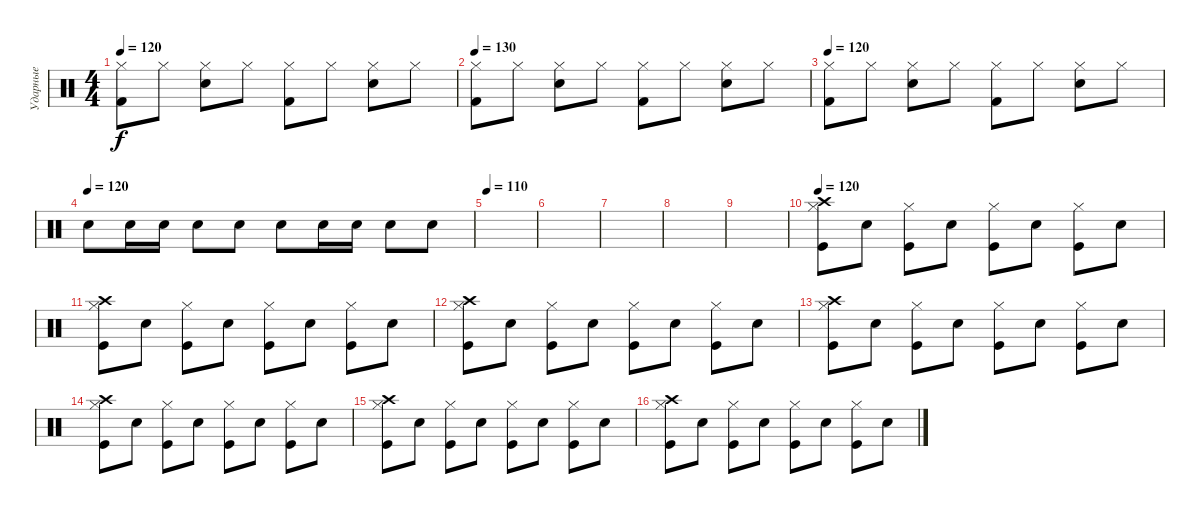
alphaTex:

\track ("Ударные" "Ударные") {instrument percussion}
\staff {score}
\articulation defaults
\ts (4 4)
\tempo 130
\tempo 120
\clef neutral
\ks c
("Hi-Hat (closed)" "Kick (hit) 2").8{dy f} "Hi-Hat (closed)".8 ("Hi-Hat (closed)" "Electric Snare (hit)").8 "Hi-Hat (closed)".8 ("Hi-Hat (closed)" "Kick (hit) 2").8 "Hi-Hat (closed)".8 ("Hi-Hat (closed)" "Electric Snare (hit)").8 "Hi-Hat (closed)".8 |
\tempo 130
("Hi-Hat (closed)" "Kick (hit) 2").8 "Hi-Hat (closed)".8 ("Hi-Hat (closed)" "Electric Snare (hit)").8 "Hi-Hat (closed)".8 ("Hi-Hat (closed)" "Kick (hit) 2").8 "Hi-Hat (closed)".8 ("Hi-Hat (closed)" "Electric Snare (hit)").8 "Hi-Hat (closed)".8 |
\tempo 130
\tempo 120
("Hi-Hat (closed)" "Kick (hit) 2").8 "Hi-Hat (closed)".8 ("Hi-Hat (closed)" "Electric Snare (hit)").8 "Hi-Hat (closed)".8 ("Hi-Hat (closed)" "Kick (hit) 2").8 "Hi-Hat (closed)".8 ("Hi-Hat (closed)" "Electric Snare (hit)").8 "Hi-Hat (closed)".8 |
\tempo 205
\tempo (120)
"Electric Snare (hit)".8 "Electric Snare (hit)".16 "Electric Snare (hit)".16 "Electric Snare (hit)".8 "Electric Snare (hit)".8 "Electric Snare (hit)".8 "Electric Snare (hit)".16 "Electric Snare (hit)".16 "Electric Snare (hit)".8 "Electric Snare (hit)".8 |
\tempo 110
|
|
|
|
|
\tempo 120
("Crash high (hit)" "Hi-Hat (closed)" "Kick (hit)").8 "Electric Snare (hit)".8 ("Hi-Hat (closed)" "Kick (hit)").8 "Electric Snare (hit)".8 ("Hi-Hat (closed)" "Kick (hit)").8 "Electric Snare (hit)".8 ("Hi-Hat (closed)" "Kick (hit)").8 "Electric Snare (hit)".8 |
("Crash high (hit)" "Hi-Hat (closed)" "Kick (hit)").8 "Electric Snare (hit)".8 ("Hi-Hat (closed)" "Kick (hit)").8 "Electric Snare (hit)".8 ("Hi-Hat (closed)" "Kick (hit)").8 "Electric Snare (hit)".8 ("Hi-Hat (closed)" "Kick (hit)").8 "Electric Snare (hit)".8 |
("Crash high (hit)" "Hi-Hat (closed)" "Kick (hit)").8 "Electric Snare (hit)".8 ("Hi-Hat (closed)" "Kick (hit)").8 "Electric Snare (hit)".8 ("Hi-Hat (closed)" "Kick (hit)").8 "Electric Snare (hit)".8 ("Hi-Hat (closed)" "Kick (hit)").8 "Electric Snare (hit)".8 |
("Crash high (hit)" "Hi-Hat (closed)" "Kick (hit)").8 "Electric Snare (hit)".8 ("Hi-Hat (closed)" "Kick (hit)").8 "Electric Snare (hit)".8 ("Hi-Hat (closed)" "Kick (hit)").8 "Electric Snare (hit)".8 ("Hi-Hat (closed)" "Kick (hit)").8 "Electric Snare (hit)".8 |
("Crash high (hit)" "Hi-Hat (closed)" "Kick (hit)").8 "Electric Snare (hit)".8 ("Hi-Hat (closed)" "Kick (hit)").8 "Electric Snare (hit)".8 ("Hi-Hat (closed)" "Kick (hit)").8 "Electric Snare (hit)".8 ("Hi-Hat (closed)" "Kick (hit)").8 "Electric Snare (hit)".8 |
("Crash high (hit)" "Hi-Hat (closed)" "Kick (hit)").8 "Electric Snare (hit)".8 ("Hi-Hat (closed)" "Kick (hit)").8 "Electric Snare (hit)".8 ("Hi-Hat (closed)" "Kick (hit)").8 "Electric Snare (hit)".8 ("Hi-Hat (closed)" "Kick (hit)").8 "Electric Snare (hit)".8 |
("Crash high (hit)" "Hi-Hat (closed)" "Kick (hit)").8 "Electric Snare (hit)".8 ("Hi-Hat (closed)" "Kick (hit)").8 "Electric Snare (hit)".8 ("Hi-Hat (closed)" "Kick (hit)").8 "Electric Snare (hit)".8 ("Hi-Hat (closed)" "Kick (hit)").8 "Electric Snare (hit)".8
